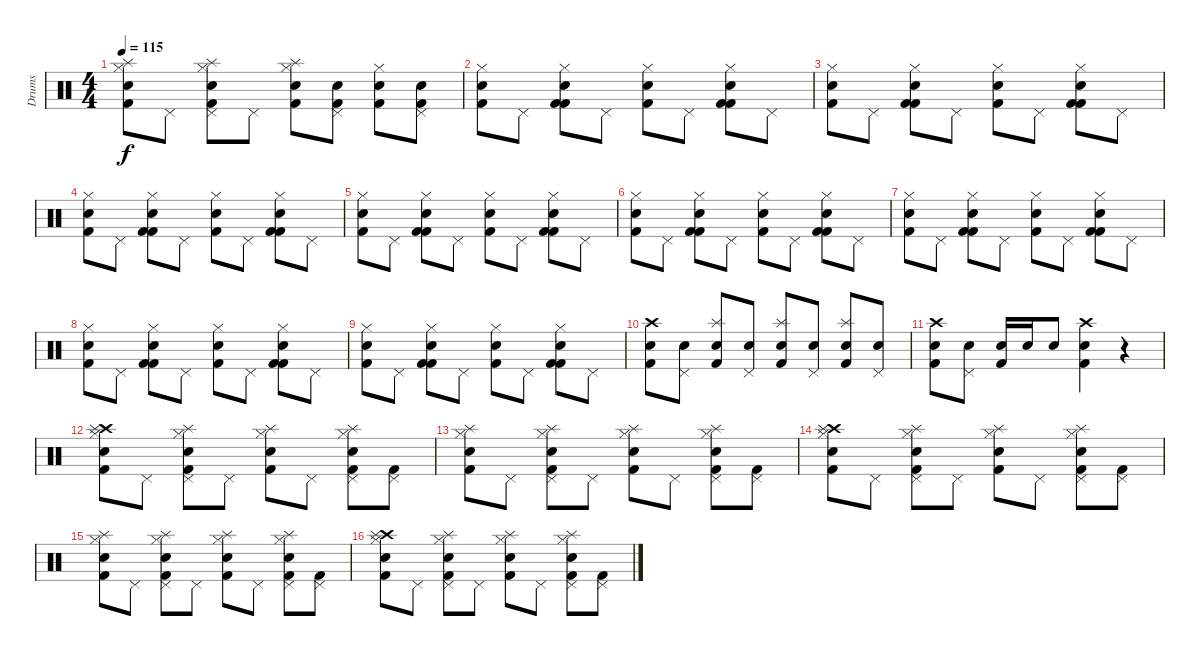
\track ("Drums" "Drums") {instrument percussion}
\staff {score}
\articulation defaults
\ts (4 4)
\tempo 115
\clef neutral
\ks c
("Hi-Hat (closed)" "Snare (hit) 2" "Splash (hit)" "Kick (hit) 2").8{dy f} "Pedal Hi-Hat (hit)".8 ("Hi-Hat (closed)" "Pedal Hi-Hat (hit)" "Electric Snare (hit)" "Splash (hit)" "Kick (hit) 2").8 "Pedal Hi-Hat (hit)".8 ("Hi-Hat (closed)" "Snare (hit) 2" "Splash (hit)" "Kick (hit) 2").8 ("Pedal Hi-Hat (hit)" "Snare (hit) 2" "Kick (hit) 2").8 ("Hi-Hat (closed)" "Electric Snare (hit)" "Kick (hit) 2").8 ("Pedal Hi-Hat (hit)" "Snare (hit) 2" "Kick (hit) 2").8 |
("Hi-Hat (closed)" "Electric Snare (hit)" "Kick (hit) 2").8 "Pedal Hi-Hat (hit)".8 ("Hi-Hat (closed)" "Snare (hit) 2" "Kick (hit) 2" "Kick (hit) 2").8 "Pedal Hi-Hat (hit)".8 ("Hi-Hat (closed)" "Electric Snare (hit)" "Kick (hit) 2").8 "Pedal Hi-Hat (hit)".8 ("Hi-Hat (closed)" "Snare (hit) 2" "Kick (hit) 2" "Kick (hit) 2").8 "Pedal Hi-Hat (hit)".8 |
("Hi-Hat (closed)" "Electric Snare (hit)" "Kick (hit) 2").8 "Pedal Hi-Hat (hit)".8 ("Hi-Hat (closed)" "Snare (hit) 2" "Kick (hit) 2" "Kick (hit) 2").8 "Pedal Hi-Hat (hit)".8 ("Hi-Hat (closed)" "Electric Snare (hit)" "Kick (hit) 2").8 "Pedal Hi-Hat (hit)".8 ("Hi-Hat (closed)" "Snare (hit) 2" "Kick (hit) 2" "Kick (hit) 2").8 "Pedal Hi-Hat (hit)".8 |
("Hi-Hat (closed)" "Electric Snare (hit)" "Kick (hit) 2").8 "Pedal Hi-Hat (hit)".8 ("Hi-Hat (closed)" "Snare (hit) 2" "Kick (hit) 2" "Kick (hit) 2").8 "Pedal Hi-Hat (hit)".8 ("Hi-Hat (closed)" "Electric Snare (hit)" "Kick (hit) 2").8 "Pedal Hi-Hat (hit)".8 ("Hi-Hat (closed)" "Snare (hit) 2" "Kick (hit) 2" "Kick (hit) 2").8 "Pedal Hi-Hat (hit)".8 |
("Hi-Hat (closed)" "Electric Snare (hit)" "Kick (hit) 2").8 "Pedal Hi-Hat (hit)".8 ("Hi-Hat (closed)" "Snare (hit) 2" "Kick (hit) 2" "Kick (hit) 2").8 "Pedal Hi-Hat (hit)".8 ("Hi-Hat (closed)" "Electric Snare (hit)" "Kick (hit) 2").8 "Pedal Hi-Hat (hit)".8 ("Hi-Hat (closed)" "Snare (hit) 2" "Kick (hit) 2" "Kick (hit) 2").8 "Pedal Hi-Hat (hit)".8 |
("Hi-Hat (closed)" "Electric Snare (hit)" "Kick (hit) 2").8 "Pedal Hi-Hat (hit)".8 ("Hi-Hat (closed)" "Snare (hit) 2" "Kick (hit) 2" "Kick (hit) 2").8 "Pedal Hi-Hat (hit)".8 ("Hi-Hat (closed)" "Electric Snare (hit)" "Kick (hit) 2").8 "Pedal Hi-Hat (hit)".8 ("Hi-Hat (closed)" "Snare (hit) 2" "Kick (hit) 2" "Kick (hit) 2").8 "Pedal Hi-Hat (hit)".8 |
("Hi-Hat (closed)" "Electric Snare (hit)" "Kick (hit) 2").8 "Pedal Hi-Hat (hit)".8 ("Hi-Hat (closed)" "Snare (hit) 2" "Kick (hit) 2" "Kick (hit) 2").8 "Pedal Hi-Hat (hit)".8 ("Hi-Hat (closed)" "Electric Snare (hit)" "Kick (hit) 2").8 "Pedal Hi-Hat (hit)".8 ("Hi-Hat (closed)" "Snare (hit) 2" "Kick (hit) 2" "Kick (hit) 2").8 "Pedal Hi-Hat (hit)".8 |
("Hi-Hat (closed)" "Electric Snare (hit)" "Kick (hit) 2").8 "Pedal Hi-Hat (hit)".8 ("Hi-Hat (closed)" "Snare (hit) 2" "Kick (hit) 2" "Kick (hit) 2").8 "Pedal Hi-Hat (hit)".8 ("Hi-Hat (closed)" "Electric Snare (hit)" "Kick (hit) 2").8 "Pedal Hi-Hat (hit)".8 ("Hi-Hat (closed)" "Snare (hit) 2" "Kick (hit) 2" "Kick (hit) 2").8 "Pedal Hi-Hat (hit)".8 |
("Hi-Hat (closed)" "Electric Snare (hit)" "Kick (hit) 2").8 "Pedal Hi-Hat (hit)".8 ("Hi-Hat (closed)" "Snare (hit) 2" "Kick (hit) 2" "Kick (hit) 2").8 "Pedal Hi-Hat (hit)".8 ("Hi-Hat (closed)" "Electric Snare (hit)" "Kick (hit) 2").8 "Pedal Hi-Hat (hit)".8 ("Hi-Hat (closed)" "Snare (hit) 2" "Kick (hit) 2" "Kick (hit) 2").8 "Pedal Hi-Hat (hit)".8 |
("Crash high (hit)" "Snare (hit) 2" "Kick (hit) 2").8 ("Pedal Hi-Hat (hit)" "Electric Snare (hit)").8 ("Splash (hit)" "Snare (hit) 2" "Kick (hit) 2").8 ("Pedal Hi-Hat (hit)" "Electric Snare (hit)").8 ("Splash (hit)" "Snare (hit) 2" "Kick (hit) 2").8 ("Pedal Hi-Hat (hit)" "Electric Snare (hit)").8 ("Splash (hit)" "Snare (hit) 2" "Kick (hit) 2").8 ("Pedal Hi-Hat (hit)" "Electric Snare (hit)").8 |
("Crash high (hit)" "Snare (hit) 2" "Kick (hit) 2").8 ("Pedal Hi-Hat (hit)" "Electric Snare (hit)").8 ("Snare (hit) 2" "Kick (hit) 2").16 "Electric Snare (hit)".16 "Snare (hit) 2".8 ("Crash high (hit)" "Snare (hit) 2" "Kick (hit) 2").4 r.4 |
("Hi-Hat (closed)" "Crash high (hit)" "Snare (hit) 2" "Splash (hit)" "Kick (hit) 2").8 "Pedal Hi-Hat (hit)".8 ("Hi-Hat (closed)" "Pedal Hi-Hat (hit)" "Electric Snare (hit)" "Splash (hit)" "Kick (hit) 2").8 "Pedal Hi-Hat (hit)".8 ("Hi-Hat (closed)" "Snare (hit) 2" "Splash (hit)" "Kick (hit) 2").8 "Pedal Hi-Hat (hit)".8 ("Hi-Hat (closed)" "Pedal Hi-Hat (hit)" "Electric Snare (hit)" "Splash (hit)" "Kick (hit) 2").8 ("Pedal Hi-Hat (hit)" "Kick (hit) 2").8 |
("Hi-Hat (closed)" "Snare (hit) 2" "Splash (hit)" "Kick (hit) 2").8 "Pedal Hi-Hat (hit)".8 ("Hi-Hat (closed)" "Pedal Hi-Hat (hit)" "Electric Snare (hit)" "Splash (hit)" "Kick (hit) 2").8 "Pedal Hi-Hat (hit)".8 ("Hi-Hat (closed)" "Snare (hit) 2" "Splash (hit)" "Kick (hit) 2").8 "Pedal Hi-Hat (hit)".8 ("Hi-Hat (closed)" "Pedal Hi-Hat (hit)" "Electric Snare (hit)" "Splash (hit)" "Kick (hit) 2").8 ("Pedal Hi-Hat (hit)" "Kick (hit) 2").8 |
("Hi-Hat (closed)" "Crash high (hit)" "Snare (hit) 2" "Splash (hit)" "Kick (hit) 2").8 "Pedal Hi-Hat (hit)".8 ("Hi-Hat (closed)" "Pedal Hi-Hat (hit)" "Electric Snare (hit)" "Splash (hit)" "Kick (hit) 2").8 "Pedal Hi-Hat (hit)".8 ("Hi-Hat (closed)" "Snare (hit) 2" "Splash (hit)" "Kick (hit) 2").8 "Pedal Hi-Hat (hit)".8 ("Hi-Hat (closed)" "Pedal Hi-Hat (hit)" "Electric Snare (hit)" "Splash (hit)" "Kick (hit) 2").8 ("Pedal Hi-Hat (hit)" "Kick (hit) 2").8 |
("Hi-Hat (closed)" "Snare (hit) 2" "Splash (hit)" "Kick (hit) 2").8 "Pedal Hi-Hat (hit)".8 ("Hi-Hat (closed)" "Pedal Hi-Hat (hit)" "Electric Snare (hit)" "Splash (hit)" "Kick (hit) 2").8 "Pedal Hi-Hat (hit)".8 ("Hi-Hat (closed)" "Snare (hit) 2" "Splash (hit)" "Kick (hit) 2").8 "Pedal Hi-Hat (hit)".8 ("Hi-Hat (closed)" "Pedal Hi-Hat (hit)" "Electric Snare (hit)" "Splash (hit)" "Kick (hit) 2").8 ("Pedal Hi-Hat (hit)" "Kick (hit) 2").8 |
("Hi-Hat (closed)" "Crash high (hit)" "Snare (hit) 2" "Splash (hit)" "Kick (hit) 2").8 "Pedal Hi-Hat (hit)".8 ("Hi-Hat (closed)" "Pedal Hi-Hat (hit)" "Electric Snare (hit)" "Splash (hit)" "Kick (hit) 2").8 "Pedal Hi-Hat (hit)".8 ("Hi-Hat (closed)" "Snare (hit) 2" "Splash (hit)" "Kick (hit) 2").8 "Pedal Hi-Hat (hit)".8 ("Hi-Hat (closed)" "Pedal Hi-Hat (hit)" "Electric Snare (hit)" "Splash (hit)" "Kick (hit) 2").8 ("Pedal Hi-Hat (hit)" "Kick (hit) 2").8
